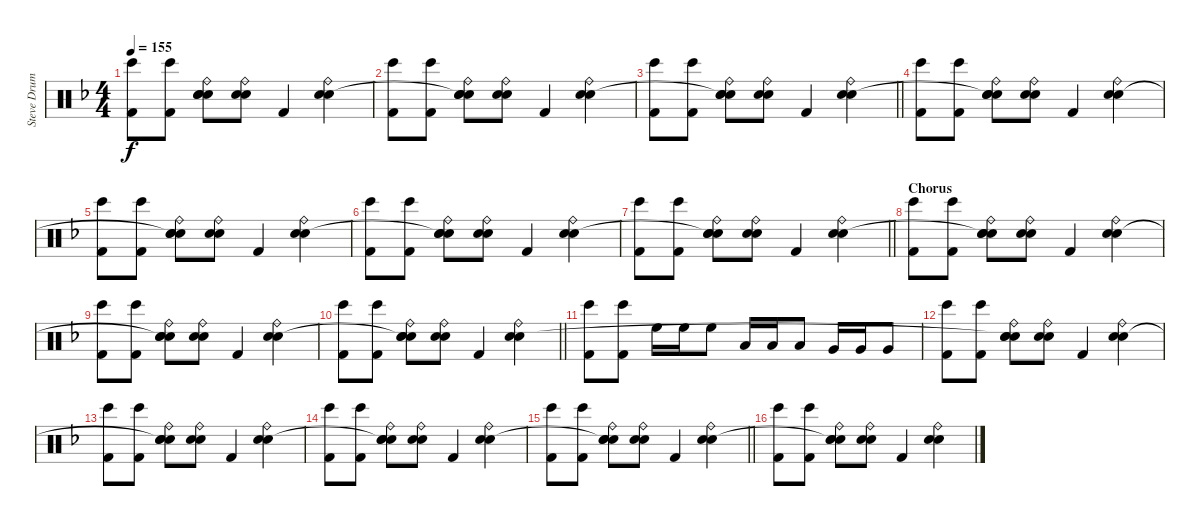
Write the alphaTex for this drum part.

\track ("Steve Drums" "Steve Drum") {instrument percussion}
\staff {score}
\articulation defaults
\ts (4 4)
\tempo 155
\clef neutral
\ks f
("Bongo High (hit)" "Kick (hit) 2").8{dy f} ("Bongo High (hit)" "Kick (hit) 2").8 ("Ride (bell)" "Snare (hit) 2" "Snare (hit)"{t} "Electric Snare (hit)").8 ("Ride (bell)" "Snare (hit) 2" "Electric Snare (hit)").8 "Kick (hit) 2".4 ("Ride (bell)" "Snare (hit) 2" "Electric Snare (hit)").4 |
("Bongo High (hit)" "Kick (hit) 2").8 ("Bongo High (hit)" "Kick (hit) 2").8 ("Ride (bell)" "Snare (hit) 2" "Snare (hit)"{t} "Electric Snare (hit)").8 ("Ride (bell)" "Snare (hit) 2" "Electric Snare (hit)").8 "Kick (hit) 2".4 ("Ride (bell)" "Snare (hit) 2" "Electric Snare (hit)").4 |
\barLineRight lightlight
("Bongo High (hit)" "Kick (hit) 2").8 ("Bongo High (hit)" "Kick (hit) 2").8 ("Ride (bell)" "Snare (hit) 2" "Snare (hit)"{t} "Electric Snare (hit)").8 ("Ride (bell)" "Snare (hit) 2" "Electric Snare (hit)").8 "Kick (hit) 2".4 ("Ride (bell)" "Snare (hit) 2" "Electric Snare (hit)").4 |
("Bongo High (hit)" "Kick (hit) 2").8 ("Bongo High (hit)" "Kick (hit) 2").8 ("Ride (bell)" "Snare (hit) 2" "Snare (hit)"{t} "Electric Snare (hit)").8 ("Ride (bell)" "Snare (hit) 2" "Electric Snare (hit)").8 "Kick (hit) 2".4 ("Ride (bell)" "Snare (hit) 2" "Electric Snare (hit)").4 |
("Bongo High (hit)" "Kick (hit) 2").8 ("Bongo High (hit)" "Kick (hit) 2").8 ("Ride (bell)" "Snare (hit) 2" "Snare (hit)"{t} "Electric Snare (hit)").8 ("Ride (bell)" "Snare (hit) 2" "Electric Snare (hit)").8 "Kick (hit) 2".4 ("Ride (bell)" "Snare (hit) 2" "Electric Snare (hit)").4 |
("Bongo High (hit)" "Kick (hit) 2").8 ("Bongo High (hit)" "Kick (hit) 2").8 ("Ride (bell)" "Snare (hit) 2" "Snare (hit)"{t} "Electric Snare (hit)").8 ("Ride (bell)" "Snare (hit) 2" "Electric Snare (hit)").8 "Kick (hit) 2".4 ("Ride (bell)" "Snare (hit) 2" "Electric Snare (hit)").4 |
\barLineRight lightlight
("Bongo High (hit)" "Kick (hit) 2").8 ("Bongo High (hit)" "Kick (hit) 2").8 ("Ride (bell)" "Snare (hit) 2" "Snare (hit)"{t} "Electric Snare (hit)").8 ("Ride (bell)" "Snare (hit) 2" "Electric Snare (hit)").8 "Kick (hit) 2".4 ("Ride (bell)" "Snare (hit) 2" "Electric Snare (hit)").4 |
\section ("" "Chorus")
("Bongo High (hit)" "Kick (hit) 2").8 ("Bongo High (hit)" "Kick (hit) 2").8 ("Ride (bell)" "Snare (hit) 2" "Snare (hit)"{t} "Electric Snare (hit)").8 ("Ride (bell)" "Snare (hit) 2" "Electric Snare (hit)").8 "Kick (hit) 2".4 ("Ride (bell)" "Snare (hit) 2" "Electric Snare (hit)").4 |
("Bongo High (hit)" "Kick (hit) 2").8 ("Bongo High (hit)" "Kick (hit) 2").8 ("Ride (bell)" "Snare (hit) 2" "Snare (hit)"{t} "Electric Snare (hit)").8 ("Ride (bell)" "Snare (hit) 2" "Electric Snare (hit)").8 "Kick (hit) 2".4 ("Ride (bell)" "Snare (hit) 2" "Electric Snare (hit)").4 |
\barLineRight lightlight
("Bongo High (hit)" "Kick (hit) 2").8 ("Bongo High (hit)" "Kick (hit) 2").8 ("Ride (bell)" "Snare (hit) 2" "Snare (hit)"{t} "Electric Snare (hit)").8 ("Ride (bell)" "Snare (hit) 2" "Electric Snare (hit)").8 "Kick (hit) 2".4 ("Ride (bell)" "Snare (hit) 2" "Electric Snare (hit)").4 |
("Bongo High (hit)" "Kick (hit) 2").8 ("Bongo High (hit)" "Kick (hit) 2").8 "High Floor Tom (hit)".16 "High Floor Tom (hit)".16 "High Floor Tom (hit)".8 "Low Tom (hit)".16 "Low Tom (hit)".16 "Low Tom (hit)".8 "Very Low Tom (hit)".16 "Very Low Tom (hit)".16 "Very Low Tom (hit)".8 |
("Bongo High (hit)" "Kick (hit) 2").8 ("Bongo High (hit)" "Kick (hit) 2").8 ("Ride (bell)" "Snare (hit) 2" "Snare (hit)"{t} "Electric Snare (hit)").8 ("Ride (bell)" "Snare (hit) 2" "Electric Snare (hit)").8 "Kick (hit) 2".4 ("Ride (bell)" "Snare (hit) 2" "Electric Snare (hit)").4 |
("Bongo High (hit)" "Kick (hit) 2").8 ("Bongo High (hit)" "Kick (hit) 2").8 ("Ride (bell)" "Snare (hit) 2" "Snare (hit)"{t} "Electric Snare (hit)").8 ("Ride (bell)" "Snare (hit) 2" "Electric Snare (hit)").8 "Kick (hit) 2".4 ("Ride (bell)" "Snare (hit) 2" "Electric Snare (hit)").4 |
("Bongo High (hit)" "Kick (hit) 2").8 ("Bongo High (hit)" "Kick (hit) 2").8 ("Ride (bell)" "Snare (hit) 2" "Snare (hit)"{t} "Electric Snare (hit)").8 ("Ride (bell)" "Snare (hit) 2" "Electric Snare (hit)").8 "Kick (hit) 2".4 ("Ride (bell)" "Snare (hit) 2" "Electric Snare (hit)").4 |
\barLineRight lightlight
("Bongo High (hit)" "Kick (hit) 2").8 ("Bongo High (hit)" "Kick (hit) 2").8 ("Ride (bell)" "Snare (hit) 2" "Snare (hit)"{t} "Electric Snare (hit)").8 ("Ride (bell)" "Snare (hit) 2" "Electric Snare (hit)").8 "Kick (hit) 2".4 ("Ride (bell)" "Snare (hit) 2" "Electric Snare (hit)").4 |
("Bongo High (hit)" "Kick (hit) 2").8 ("Bongo High (hit)" "Kick (hit) 2").8 ("Ride (bell)" "Snare (hit) 2" "Snare (hit)"{t} "Electric Snare (hit)").8 ("Ride (bell)" "Snare (hit) 2" "Electric Snare (hit)").8 "Kick (hit) 2".4 ("Ride (bell)" "Snare (hit) 2" "Electric Snare (hit)").4
